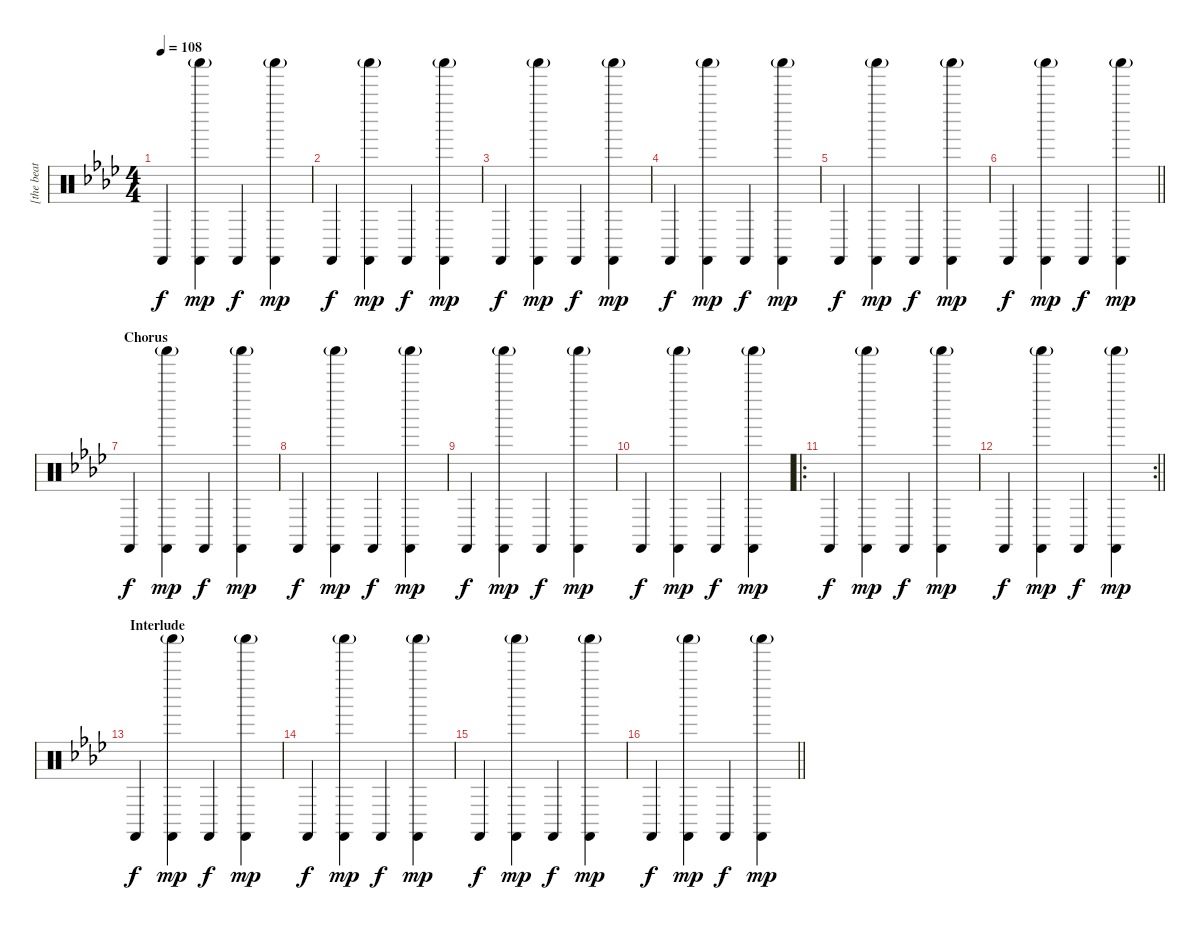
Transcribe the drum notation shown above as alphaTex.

\track (" [the beat]" " [the beat") {instrument percussion}
\staff {score}
\articulation defaults
\ts (4 4)
\tempo 108
\clef neutral
\ks fminor "Castanets (hit)".4{dy f}
("Castanets (hit)" "Shaker (hit)"{g}).4{dy mp} "Castanets (hit)".4{dy f} ("Castanets (hit)" "Shaker (hit)"{g}).4{dy mp} |
"Castanets (hit)".4{dy f} ("Castanets (hit)" "Shaker (hit)"{g}).4{dy mp} "Castanets (hit)".4{dy f} ("Castanets (hit)" "Shaker (hit)"{g}).4{dy mp} |
"Castanets (hit)".4{dy f} ("Castanets (hit)" "Shaker (hit)"{g}).4{dy mp} "Castanets (hit)".4{dy f} ("Castanets (hit)" "Shaker (hit)"{g}).4{dy mp} |
"Castanets (hit)".4{dy f} ("Castanets (hit)" "Shaker (hit)"{g}).4{dy mp} "Castanets (hit)".4{dy f} ("Castanets (hit)" "Shaker (hit)"{g}).4{dy mp} |
"Castanets (hit)".4{dy f} ("Castanets (hit)" "Shaker (hit)"{g}).4{dy mp} "Castanets (hit)".4{dy f} ("Castanets (hit)" "Shaker (hit)"{g}).4{dy mp} |
\barLineRight lightlight "Castanets (hit)".4{dy f}
("Castanets (hit)" "Shaker (hit)"{g}).4{dy mp} "Castanets (hit)".4{dy f} ("Castanets (hit)" "Shaker (hit)"{g}).4{dy mp} |
\section ("" "Chorus")
"Castanets (hit)".4{dy f} ("Castanets (hit)" "Shaker (hit)"{g}).4{dy mp} "Castanets (hit)".4{dy f} ("Castanets (hit)" "Shaker (hit)"{g}).4{dy mp} |
"Castanets (hit)".4{dy f} ("Castanets (hit)" "Shaker (hit)"{g}).4{dy mp} "Castanets (hit)".4{dy f} ("Castanets (hit)" "Shaker (hit)"{g}).4{dy mp} |
"Castanets (hit)".4{dy f} ("Castanets (hit)" "Shaker (hit)"{g}).4{dy mp} "Castanets (hit)".4{dy f} ("Castanets (hit)" "Shaker (hit)"{g}).4{dy mp} |
"Castanets (hit)".4{dy f} ("Castanets (hit)" "Shaker (hit)"{g}).4{dy mp} "Castanets (hit)".4{dy f} ("Castanets (hit)" "Shaker (hit)"{g}).4{dy mp} |
\ro "Castanets (hit)".4{dy f}
("Castanets (hit)" "Shaker (hit)"{g}).4{dy mp} "Castanets (hit)".4{dy f} ("Castanets (hit)" "Shaker (hit)"{g}).4{dy mp} |
\rc 2
\barLineRight lightlight "Castanets (hit)".4{dy f}
("Castanets (hit)" "Shaker (hit)"{g}).4{dy mp} "Castanets (hit)".4{dy f} ("Castanets (hit)" "Shaker (hit)"{g}).4{dy mp} |
\section ("" "Interlude")
"Castanets (hit)".4{dy f} ("Castanets (hit)" "Shaker (hit)"{g}).4{dy mp} "Castanets (hit)".4{dy f} ("Castanets (hit)" "Shaker (hit)"{g}).4{dy mp} |
"Castanets (hit)".4{dy f} ("Castanets (hit)" "Shaker (hit)"{g}).4{dy mp} "Castanets (hit)".4{dy f} ("Castanets (hit)" "Shaker (hit)"{g}).4{dy mp} |
"Castanets (hit)".4{dy f} ("Castanets (hit)" "Shaker (hit)"{g}).4{dy mp} "Castanets (hit)".4{dy f} ("Castanets (hit)" "Shaker (hit)"{g}).4{dy mp} |
\barLineRight lightlight "Castanets (hit)".4{dy f}
("Castanets (hit)" "Shaker (hit)"{g}).4{dy mp} "Castanets (hit)".4{dy f} ("Castanets (hit)" "Shaker (hit)"{g}).4{dy mp}
